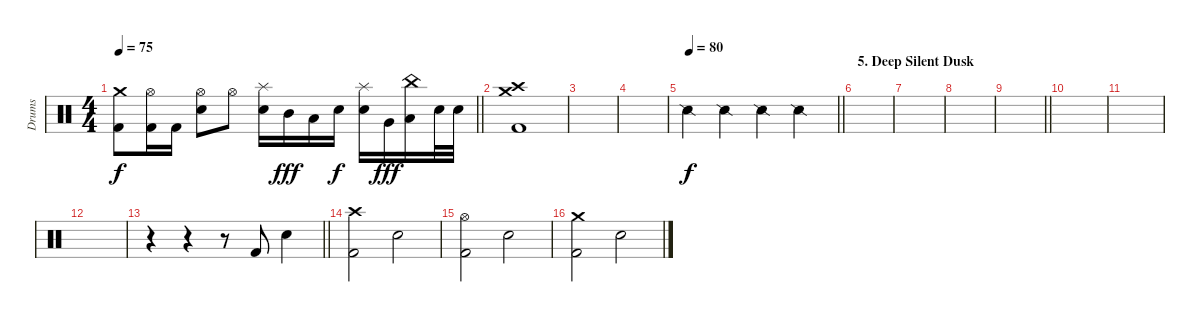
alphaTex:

\track ("Drums" "Drums") {instrument percussion}
\staff {score}
\articulation defaults
\ts (4 4)
\tempo 75
\clef neutral
\barLineRight lightlight
\ks c
("Kick (hit) 2" "Crash medium (hit)").8{dy f} ("Kick (hit) 2" "Hi-Hat (open)").16 "Kick (hit) 2".16 ("Electric Snare (hit)" "Hi-Hat (open)").8 "Hi-Hat (open)".8 ("Electric Snare (hit)" "Splash (hit)").16 "Mid Tom (hit)".16{dy fff} "Low Tom (hit)".16 "Electric Snare (hit)".16{dy f} ("Electric Snare (hit)" "Splash (hit)").16 "Very Low Tom (hit)".16{dy fff} ("Low Floor Tom (hit)" "China (hit)").16 "Electric Snare (hit)".32 "Electric Snare (hit)".32 |
("Kick (hit) 2" "Crash high (hit)" "Crash medium (hit)").1 |
|
|
\tempo 80
\barLineRight lightlight "Snare (side stick) 2".4{dy f} "Snare (side stick) 2".4 "Snare (side stick) 2".4 "Snare (side stick) 2".4
|
\section ("" "5. Deep Silent Dusk")
|
|
|
\barLineRight lightlight
|
|
|
|
\barLineRight lightlight
r.4 r.4 r.8 "Kick (hit) 2".8 "Electric Snare (hit)".4 |
("Kick (hit) 2" "Crash high (hit)").2 "Electric Snare (hit)".2 |
("Kick (hit) 2" "Hi-Hat (open)").2 "Electric Snare (hit)".2 |
("Kick (hit) 2" "Crash medium (hit)").2 "Electric Snare (hit)".2
